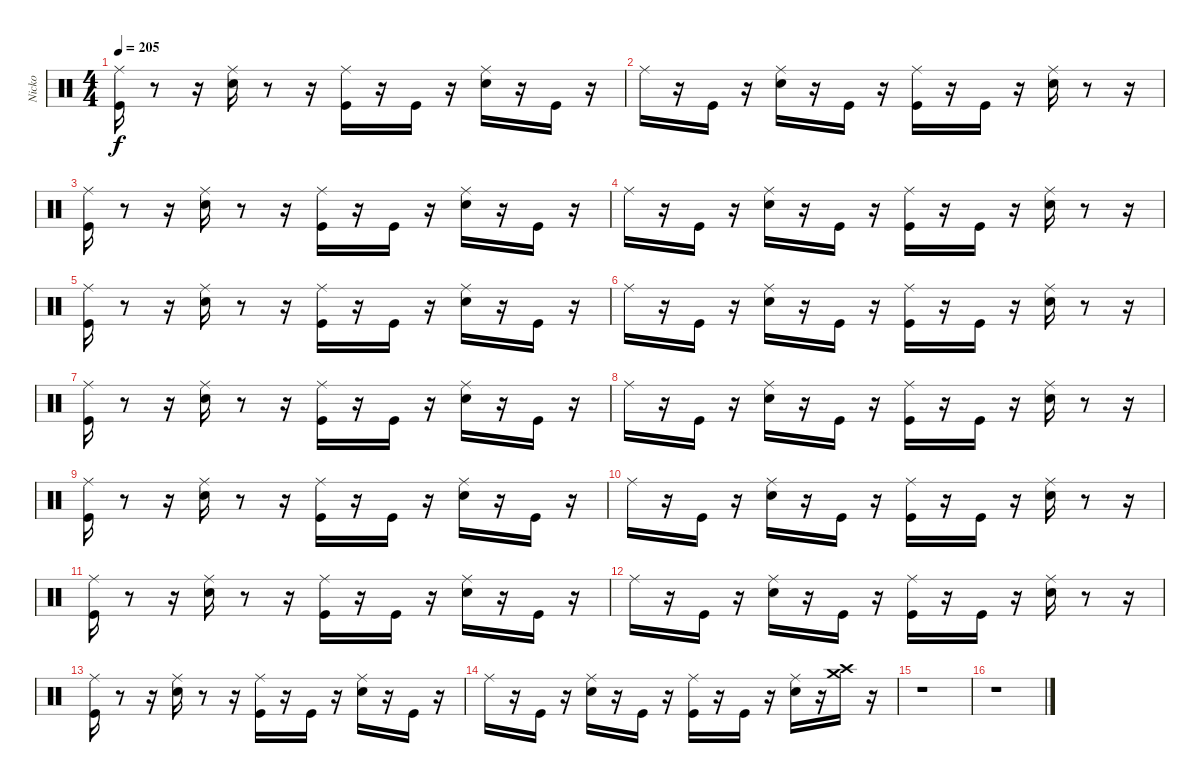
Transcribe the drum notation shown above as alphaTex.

\track ("Nicko" "Nicko") {instrument percussion}
\staff {score}
\articulation defaults
\ts (4 4)
\tempo 205
\clef neutral
\ks c
("Ride (middle)" "Kick (hit)").16{dy f} r.8 r.16 ("Ride (middle)" "Snare (hit) 2").16 r.8 r.16 ("Ride (middle)" "Kick (hit)").16 r.16 "Kick (hit)".16 r.16 ("Ride (middle)" "Snare (hit) 2").16 r.16 "Kick (hit)".16 r.16 |
"Ride (middle)".16 r.16 "Kick (hit)".16 r.16 ("Ride (middle)" "Snare (hit) 2").16 r.16 "Kick (hit)".16 r.16 ("Ride (middle)" "Kick (hit)").16 r.16 "Kick (hit)".16 r.16 ("Ride (middle)" "Snare (hit) 2").16 r.8 r.16 |
("Ride (middle)" "Kick (hit)").16 r.8 r.16 ("Ride (middle)" "Snare (hit) 2").16 r.8 r.16 ("Ride (middle)" "Kick (hit)").16 r.16 "Kick (hit)".16 r.16 ("Ride (middle)" "Snare (hit) 2").16 r.16 "Kick (hit)".16 r.16 |
"Ride (middle)".16 r.16 "Kick (hit)".16 r.16 ("Ride (middle)" "Snare (hit) 2").16 r.16 "Kick (hit)".16 r.16 ("Ride (middle)" "Kick (hit)").16 r.16 "Kick (hit)".16 r.16 ("Ride (middle)" "Snare (hit) 2").16 r.8 r.16 |
("Ride (middle)" "Kick (hit)").16 r.8 r.16 ("Ride (middle)" "Snare (hit) 2").16 r.8 r.16 ("Ride (middle)" "Kick (hit)").16 r.16 "Kick (hit)".16 r.16 ("Ride (middle)" "Snare (hit) 2").16 r.16 "Kick (hit)".16 r.16 |
"Ride (middle)".16 r.16 "Kick (hit)".16 r.16 ("Ride (middle)" "Snare (hit) 2").16 r.16 "Kick (hit)".16 r.16 ("Ride (middle)" "Kick (hit)").16 r.16 "Kick (hit)".16 r.16 ("Ride (middle)" "Snare (hit) 2").16 r.8 r.16 |
("Ride (middle)" "Kick (hit)").16 r.8 r.16 ("Ride (middle)" "Snare (hit) 2").16 r.8 r.16 ("Ride (middle)" "Kick (hit)").16 r.16 "Kick (hit)".16 r.16 ("Ride (middle)" "Snare (hit) 2").16 r.16 "Kick (hit)".16 r.16 |
"Ride (middle)".16 r.16 "Kick (hit)".16 r.16 ("Ride (middle)" "Snare (hit) 2").16 r.16 "Kick (hit)".16 r.16 ("Ride (middle)" "Kick (hit)").16 r.16 "Kick (hit)".16 r.16 ("Ride (middle)" "Snare (hit) 2").16 r.8 r.16 |
("Ride (middle)" "Kick (hit)").16 r.8 r.16 ("Ride (middle)" "Snare (hit) 2").16 r.8 r.16 ("Ride (middle)" "Kick (hit)").16 r.16 "Kick (hit)".16 r.16 ("Ride (middle)" "Snare (hit) 2").16 r.16 "Kick (hit)".16 r.16 |
"Ride (middle)".16 r.16 "Kick (hit)".16 r.16 ("Ride (middle)" "Snare (hit) 2").16 r.16 "Kick (hit)".16 r.16 ("Ride (middle)" "Kick (hit)").16 r.16 "Kick (hit)".16 r.16 ("Ride (middle)" "Snare (hit) 2").16 r.8 r.16 |
("Ride (middle)" "Kick (hit)").16 r.8 r.16 ("Ride (middle)" "Snare (hit) 2").16 r.8 r.16 ("Ride (middle)" "Kick (hit)").16 r.16 "Kick (hit)".16 r.16 ("Ride (middle)" "Snare (hit) 2").16 r.16 "Kick (hit)".16 r.16 |
"Ride (middle)".16 r.16 "Kick (hit)".16 r.16 ("Ride (middle)" "Snare (hit) 2").16 r.16 "Kick (hit)".16 r.16 ("Ride (middle)" "Kick (hit)").16 r.16 "Kick (hit)".16 r.16 ("Ride (middle)" "Snare (hit) 2").16 r.8 r.16 |
("Ride (middle)" "Kick (hit)").16 r.8 r.16 ("Ride (middle)" "Snare (hit) 2").16 r.8 r.16 ("Ride (middle)" "Kick (hit)").16 r.16 "Kick (hit)".16 r.16 ("Ride (middle)" "Snare (hit) 2").16 r.16 "Kick (hit)".16 r.16 |
"Ride (middle)".16 r.16 "Kick (hit)".16 r.16 ("Ride (middle)" "Snare (hit) 2").16 r.16 "Kick (hit)".16 r.16 ("Ride (middle)" "Kick (hit)").16 r.16 "Kick (hit)".16 r.16 ("Ride (middle)" "Snare (hit) 2").16 r.16 ("Crash high (hit)" "Crash medium (hit)").16 r.16 |
r.1 |
r.1
